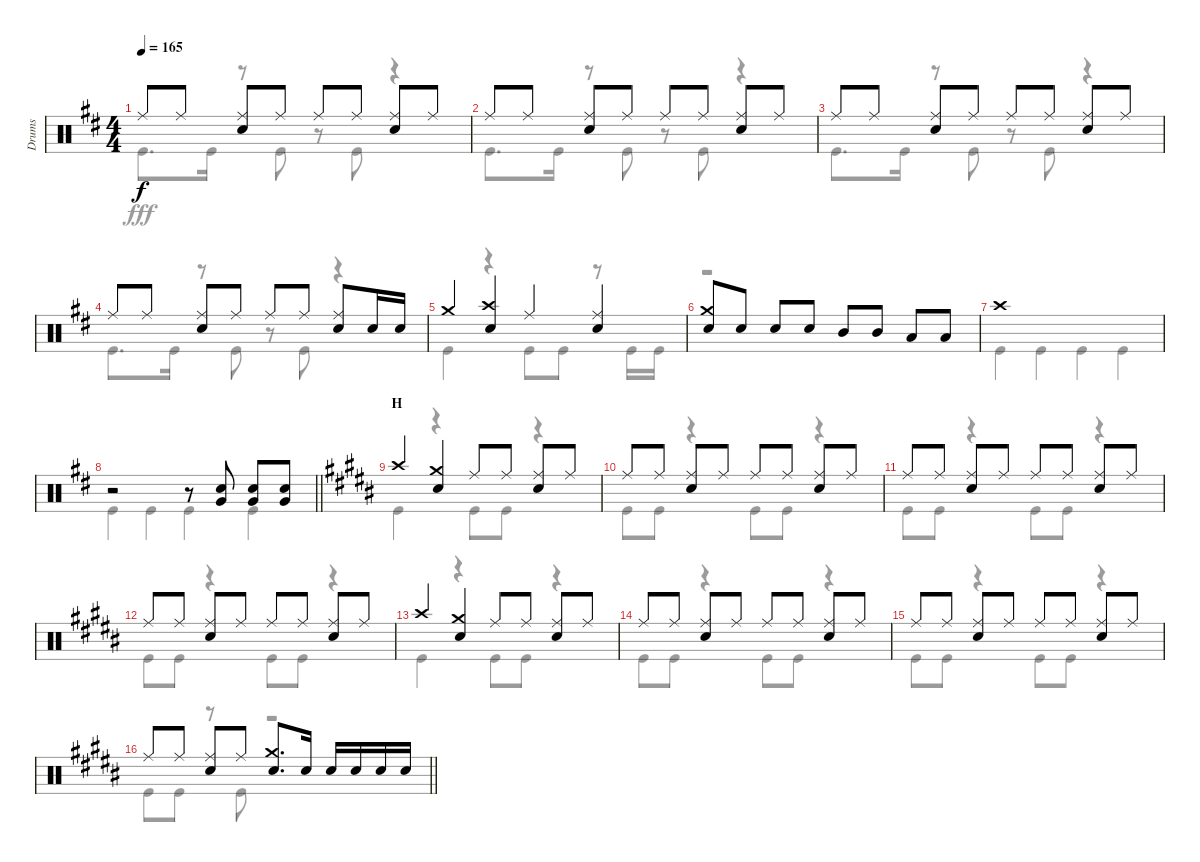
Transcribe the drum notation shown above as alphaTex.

\track ("Drums" "Drums") {instrument percussion}
\staff {score}
\articulation defaults
\voice
\ts (4 4)
\tempo 165
\clef neutral
\ks d "Ride (middle)".8{dy f} "Ride (middle)".8
("Ride (middle)" "Snare (hit) 2").8 "Ride (middle)".8 "Ride (middle)".8 "Ride (middle)".8 ("Ride (middle)" "Snare (hit) 2").8 "Ride (middle)".8 |
"Ride (middle)".8 "Ride (middle)".8 ("Ride (middle)" "Snare (hit) 2").8 "Ride (middle)".8 "Ride (middle)".8 "Ride (middle)".8 ("Ride (middle)" "Snare (hit) 2").8 "Ride (middle)".8 |
"Ride (middle)".8 "Ride (middle)".8 ("Ride (middle)" "Snare (hit) 2").8 "Ride (middle)".8 "Ride (middle)".8 "Ride (middle)".8 ("Ride (middle)" "Snare (hit) 2").8 "Ride (middle)".8 |
"Ride (middle)".8 "Ride (middle)".8 ("Ride (middle)" "Snare (hit) 2").8 "Ride (middle)".8 "Ride (middle)".8 "Ride (middle)".8 ("Ride (middle)" "Snare (hit) 2").8 "Snare (hit) 2".16 "Snare (hit) 2".16 |
"Crash medium (hit)".4 ("Crash high (hit)" "Snare (hit) 2").4 "Ride (middle)".4 ("Ride (middle)" "Snare (hit) 2").4 |
("Crash medium (hit)" "Snare (hit) 2").8 "Snare (hit) 2".8 "Snare (hit) 2".8 "Snare (hit) 2".8 "Mid Tom (hit)".8 "Mid Tom (hit)".8 "Low Tom (hit)".8 "Low Tom (hit)".8 |
"Crash high (hit)".1 |
\barLineRight lightlight
r.2 r.8 ("Snare (hit) 2" "Very Low Tom (hit)").8 ("Snare (hit) 2" "Very Low Tom (hit)").8 ("Snare (hit) 2" "Very Low Tom (hit)").8 |
\section ("" "H")
\ks b "Crash high (hit)".4
("Crash medium (hit)" "Snare (hit) 2").4 "Ride (middle)".8 "Ride (middle)".8 ("Ride (middle)" "Snare (hit) 2").8 "Ride (middle)".8 |
"Ride (middle)".8 "Ride (middle)".8 ("Ride (middle)" "Snare (hit) 2").8 "Ride (middle)".8 "Ride (middle)".8 "Ride (middle)".8 ("Ride (middle)" "Snare (hit) 2").8 "Ride (middle)".8 |
"Ride (middle)".8 "Ride (middle)".8 ("Ride (middle)" "Snare (hit) 2").8 "Ride (middle)".8 "Ride (middle)".8 "Ride (middle)".8 ("Ride (middle)" "Snare (hit) 2").8 "Ride (middle)".8 |
"Ride (middle)".8 "Ride (middle)".8 ("Ride (middle)" "Snare (hit) 2").8 "Ride (middle)".8 "Ride (middle)".8 "Ride (middle)".8 ("Ride (middle)" "Snare (hit) 2").8 "Ride (middle)".8 |
"Crash high (hit)".4 ("Crash medium (hit)" "Snare (hit) 2").4 "Ride (middle)".8 "Ride (middle)".8 ("Ride (middle)" "Snare (hit) 2").8 "Ride (middle)".8 |
"Ride (middle)".8 "Ride (middle)".8 ("Ride (middle)" "Snare (hit) 2").8 "Ride (middle)".8 "Ride (middle)".8 "Ride (middle)".8 ("Ride (middle)" "Snare (hit) 2").8 "Ride (middle)".8 |
"Ride (middle)".8 "Ride (middle)".8 ("Ride (middle)" "Snare (hit) 2").8 "Ride (middle)".8 "Ride (middle)".8 "Ride (middle)".8 ("Ride (middle)" "Snare (hit) 2").8 "Ride (middle)".8 |
\barLineRight lightlight "Ride (middle)".8 "Ride (middle)".8
("Ride (middle)" "Snare (hit) 2").8 "Ride (middle)".8 ("Crash medium (hit)" "Snare (hit) 2").8{d} "Snare (hit) 2".16 "Snare (hit) 2".16 "Snare (hit) 2".16 "Snare (hit) 2".16 "Snare (hit) 2".16
\voice
\clef neutral
\ottava regular
\simile none
\ks d "Kick (hit)".8{d dy fff} "Kick (hit)".16
r.8 "Kick (hit)".8 r.8 "Kick (hit)".8 r.4 |
"Kick (hit)".8{d} "Kick (hit)".16 r.8 "Kick (hit)".8 r.8 "Kick (hit)".8 r.4 |
"Kick (hit)".8{d} "Kick (hit)".16 r.8 "Kick (hit)".8 r.8 "Kick (hit)".8 r.4 |
"Kick (hit)".8{d} "Kick (hit)".16 r.8 "Kick (hit)".8 r.8 "Kick (hit)".8 r.4 |
"Kick (hit)".4 r.4 "Kick (hit)".8 "Kick (hit)".8 r.8 "Kick (hit)".16 "Kick (hit)".16 |
r.1 |
"Kick (hit)".4 "Kick (hit)".4 "Kick (hit)".4 "Kick (hit)".4 |
\barLineRight lightlight "Kick (hit)".4 "Kick (hit)".4 "Kick (hit)".4 "Kick (hit)".4
|
\ks b "Kick (hit)".4
r.4 "Kick (hit)".8 "Kick (hit)".8 r.4 |
"Kick (hit)".8 "Kick (hit)".8 r.4 "Kick (hit)".8 "Kick (hit)".8 r.4 |
"Kick (hit)".8 "Kick (hit)".8 r.4 "Kick (hit)".8 "Kick (hit)".8 r.4 |
"Kick (hit)".8 "Kick (hit)".8 r.4 "Kick (hit)".8 "Kick (hit)".8 r.4 |
"Kick (hit)".4 r.4 "Kick (hit)".8 "Kick (hit)".8 r.4 |
"Kick (hit)".8 "Kick (hit)".8 r.4 "Kick (hit)".8 "Kick (hit)".8 r.4 |
"Kick (hit)".8 "Kick (hit)".8 r.4 "Kick (hit)".8 "Kick (hit)".8 r.4 |
\barLineRight lightlight "Kick (hit)".8 "Kick (hit)".8
r.8 "Kick (hit)".8 r.2
